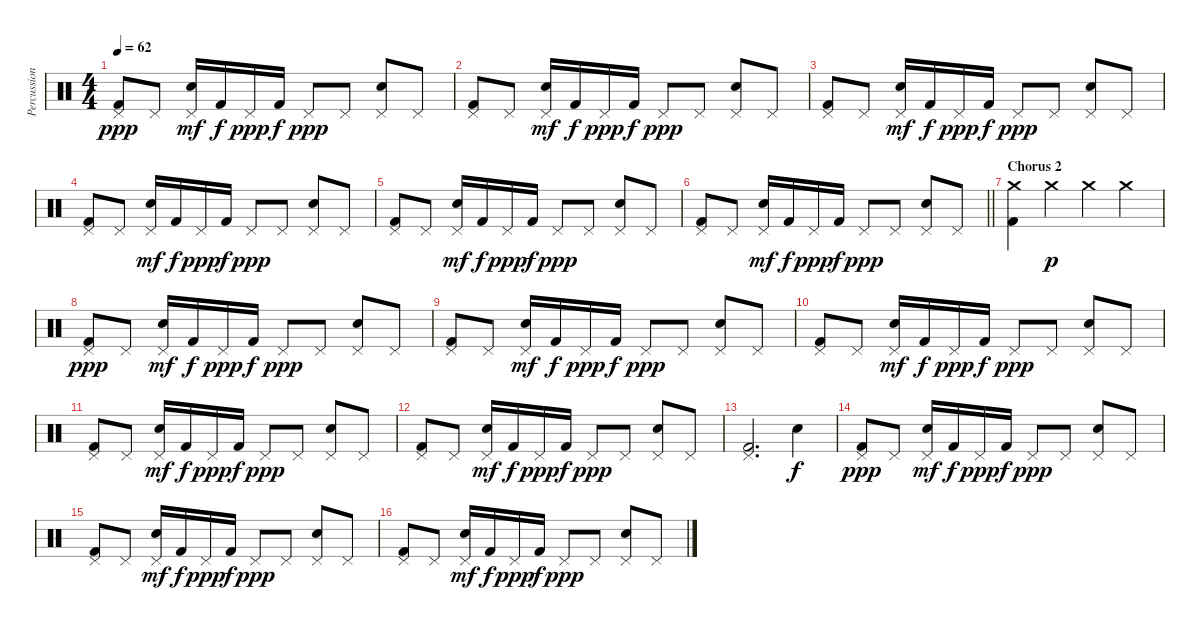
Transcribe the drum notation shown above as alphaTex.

\track ("Percussion" "Percussion") {instrument percussion}
\staff {score}
\articulation defaults
\ts (4 4)
\tempo 62
\clef neutral
\ks c
("Pedal Hi-Hat (hit)" "Kick (hit) 2").8{dy ppp} "Pedal Hi-Hat (hit)".8 ("Pedal Hi-Hat (hit)" "Electric Snare (hit)").16{dy mf} "Kick (hit) 2".16{dy f} "Pedal Hi-Hat (hit)".16{dy ppp} "Kick (hit) 2".16{dy f} "Pedal Hi-Hat (hit)".8{dy ppp} "Pedal Hi-Hat (hit)".8 ("Pedal Hi-Hat (hit)" "Electric Snare (hit)").8 "Pedal Hi-Hat (hit)".8 |
("Pedal Hi-Hat (hit)" "Kick (hit) 2").8 "Pedal Hi-Hat (hit)".8 ("Pedal Hi-Hat (hit)" "Electric Snare (hit)").16{dy mf} "Kick (hit) 2".16{dy f} "Pedal Hi-Hat (hit)".16{dy ppp} "Kick (hit) 2".16{dy f} "Pedal Hi-Hat (hit)".8{dy ppp} "Pedal Hi-Hat (hit)".8 ("Pedal Hi-Hat (hit)" "Electric Snare (hit)").8 "Pedal Hi-Hat (hit)".8 |
("Pedal Hi-Hat (hit)" "Kick (hit) 2").8 "Pedal Hi-Hat (hit)".8 ("Pedal Hi-Hat (hit)" "Electric Snare (hit)").16{dy mf} "Kick (hit) 2".16{dy f} "Pedal Hi-Hat (hit)".16{dy ppp} "Kick (hit) 2".16{dy f} "Pedal Hi-Hat (hit)".8{dy ppp} "Pedal Hi-Hat (hit)".8 ("Pedal Hi-Hat (hit)" "Electric Snare (hit)").8 "Pedal Hi-Hat (hit)".8 |
("Pedal Hi-Hat (hit)" "Kick (hit) 2").8 "Pedal Hi-Hat (hit)".8 ("Pedal Hi-Hat (hit)" "Electric Snare (hit)").16{dy mf} "Kick (hit) 2".16{dy f} "Pedal Hi-Hat (hit)".16{dy ppp} "Kick (hit) 2".16{dy f} "Pedal Hi-Hat (hit)".8{dy ppp} "Pedal Hi-Hat (hit)".8 ("Pedal Hi-Hat (hit)" "Electric Snare (hit)").8 "Pedal Hi-Hat (hit)".8 |
("Pedal Hi-Hat (hit)" "Kick (hit) 2").8 "Pedal Hi-Hat (hit)".8 ("Pedal Hi-Hat (hit)" "Electric Snare (hit)").16{dy mf} "Kick (hit) 2".16{dy f} "Pedal Hi-Hat (hit)".16{dy ppp} "Kick (hit) 2".16{dy f} "Pedal Hi-Hat (hit)".8{dy ppp} "Pedal Hi-Hat (hit)".8 ("Pedal Hi-Hat (hit)" "Electric Snare (hit)").8 "Pedal Hi-Hat (hit)".8 |
\barLineRight lightlight
("Pedal Hi-Hat (hit)" "Kick (hit) 2").8 "Pedal Hi-Hat (hit)".8 ("Pedal Hi-Hat (hit)" "Electric Snare (hit)").16{dy mf} "Kick (hit) 2".16{dy f} "Pedal Hi-Hat (hit)".16{dy ppp} "Kick (hit) 2".16{dy f} "Pedal Hi-Hat (hit)".8{dy ppp} "Pedal Hi-Hat (hit)".8 ("Pedal Hi-Hat (hit)" "Electric Snare (hit)").8 "Pedal Hi-Hat (hit)".8 |
\section ("" "Chorus 2")
("Crash medium (hit)" "Kick (hit) 2").4 "Crash medium (hit)".4{dy p} "Crash medium (hit)".4 "Crash medium (hit)".4 |
("Pedal Hi-Hat (hit)" "Kick (hit) 2").8{dy ppp} "Pedal Hi-Hat (hit)".8 ("Pedal Hi-Hat (hit)" "Electric Snare (hit)").16{dy mf} "Kick (hit) 2".16{dy f} "Pedal Hi-Hat (hit)".16{dy ppp} "Kick (hit) 2".16{dy f} "Pedal Hi-Hat (hit)".8{dy ppp} "Pedal Hi-Hat (hit)".8 ("Pedal Hi-Hat (hit)" "Electric Snare (hit)").8 "Pedal Hi-Hat (hit)".8 |
("Pedal Hi-Hat (hit)" "Kick (hit) 2").8 "Pedal Hi-Hat (hit)".8 ("Pedal Hi-Hat (hit)" "Electric Snare (hit)").16{dy mf} "Kick (hit) 2".16{dy f} "Pedal Hi-Hat (hit)".16{dy ppp} "Kick (hit) 2".16{dy f} "Pedal Hi-Hat (hit)".8{dy ppp} "Pedal Hi-Hat (hit)".8 ("Pedal Hi-Hat (hit)" "Electric Snare (hit)").8 "Pedal Hi-Hat (hit)".8 |
("Pedal Hi-Hat (hit)" "Kick (hit) 2").8 "Pedal Hi-Hat (hit)".8 ("Pedal Hi-Hat (hit)" "Electric Snare (hit)").16{dy mf} "Kick (hit) 2".16{dy f} "Pedal Hi-Hat (hit)".16{dy ppp} "Kick (hit) 2".16{dy f} "Pedal Hi-Hat (hit)".8{dy ppp} "Pedal Hi-Hat (hit)".8 ("Pedal Hi-Hat (hit)" "Electric Snare (hit)").8 "Pedal Hi-Hat (hit)".8 |
("Pedal Hi-Hat (hit)" "Kick (hit) 2").8 "Pedal Hi-Hat (hit)".8 ("Pedal Hi-Hat (hit)" "Electric Snare (hit)").16{dy mf} "Kick (hit) 2".16{dy f} "Pedal Hi-Hat (hit)".16{dy ppp} "Kick (hit) 2".16{dy f} "Pedal Hi-Hat (hit)".8{dy ppp} "Pedal Hi-Hat (hit)".8 ("Pedal Hi-Hat (hit)" "Electric Snare (hit)").8 "Pedal Hi-Hat (hit)".8 |
("Pedal Hi-Hat (hit)" "Kick (hit) 2").8 "Pedal Hi-Hat (hit)".8 ("Pedal Hi-Hat (hit)" "Electric Snare (hit)").16{dy mf} "Kick (hit) 2".16{dy f} "Pedal Hi-Hat (hit)".16{dy ppp} "Kick (hit) 2".16{dy f} "Pedal Hi-Hat (hit)".8{dy ppp} "Pedal Hi-Hat (hit)".8 ("Pedal Hi-Hat (hit)" "Electric Snare (hit)").8 "Pedal Hi-Hat (hit)".8 |
("Pedal Hi-Hat (hit)" "Kick (hit) 2").2{d} "Electric Snare (hit)".4{dy f} |
("Pedal Hi-Hat (hit)" "Kick (hit) 2").8{dy ppp} "Pedal Hi-Hat (hit)".8 ("Pedal Hi-Hat (hit)" "Electric Snare (hit)").16{dy mf} "Kick (hit) 2".16{dy f} "Pedal Hi-Hat (hit)".16{dy ppp} "Kick (hit) 2".16{dy f} "Pedal Hi-Hat (hit)".8{dy ppp} "Pedal Hi-Hat (hit)".8 ("Pedal Hi-Hat (hit)" "Electric Snare (hit)").8 "Pedal Hi-Hat (hit)".8 |
("Pedal Hi-Hat (hit)" "Kick (hit) 2").8 "Pedal Hi-Hat (hit)".8 ("Pedal Hi-Hat (hit)" "Electric Snare (hit)").16{dy mf} "Kick (hit) 2".16{dy f} "Pedal Hi-Hat (hit)".16{dy ppp} "Kick (hit) 2".16{dy f} "Pedal Hi-Hat (hit)".8{dy ppp} "Pedal Hi-Hat (hit)".8 ("Pedal Hi-Hat (hit)" "Electric Snare (hit)").8 "Pedal Hi-Hat (hit)".8 |
("Pedal Hi-Hat (hit)" "Kick (hit) 2").8 "Pedal Hi-Hat (hit)".8 ("Pedal Hi-Hat (hit)" "Electric Snare (hit)").16{dy mf} "Kick (hit) 2".16{dy f} "Pedal Hi-Hat (hit)".16{dy ppp} "Kick (hit) 2".16{dy f} "Pedal Hi-Hat (hit)".8{dy ppp} "Pedal Hi-Hat (hit)".8 ("Pedal Hi-Hat (hit)" "Electric Snare (hit)").8 "Pedal Hi-Hat (hit)".8
